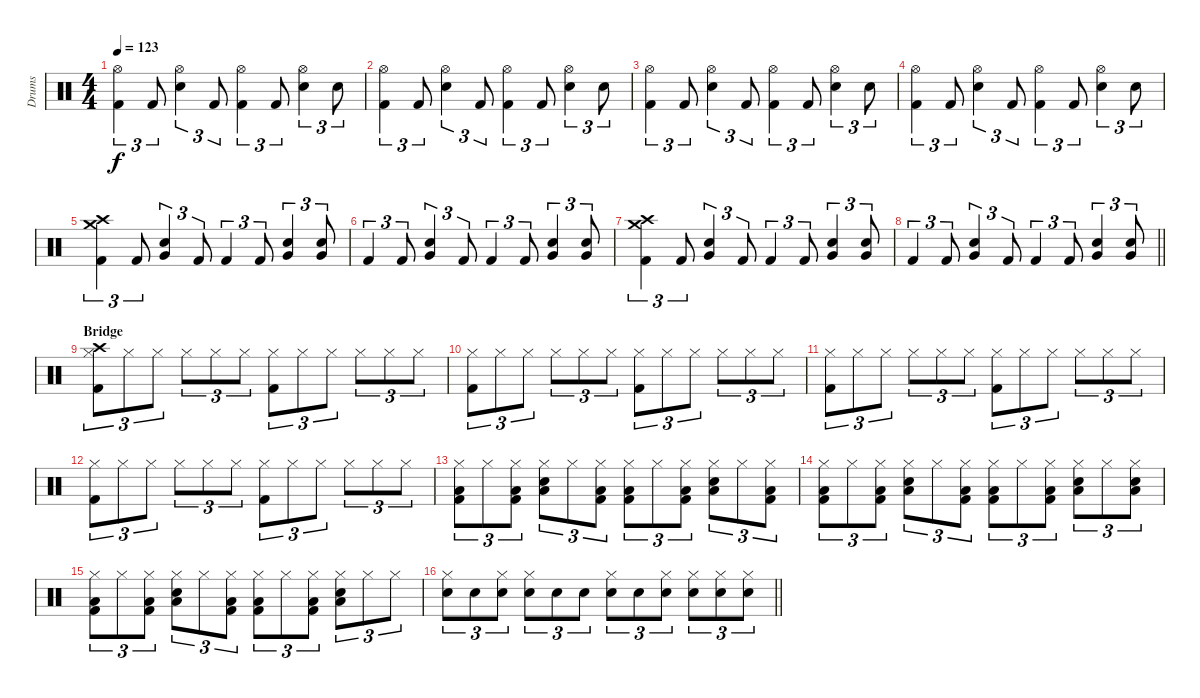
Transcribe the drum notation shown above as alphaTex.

\track ("Drums" "Drums") {instrument percussion}
\staff {score}
\articulation defaults
\ts (4 4)
\tempo 123
\clef neutral
\ks c
("Hi-Hat (open)" "Kick (hit) 2").4{tu (3 2) dy f} "Kick (hit) 2".8{tu (3 2)} ("Hi-Hat (open)" "Snare (hit) 2").4{tu (3 2)} "Kick (hit) 2".8{tu (3 2)} ("Hi-Hat (open)" "Kick (hit) 2").4{tu (3 2)} "Kick (hit) 2".8{tu (3 2)} ("Hi-Hat (open)" "Snare (hit) 2").4{tu (3 2)} "Snare (hit) 2".8{tu (3 2)} |
("Hi-Hat (open)" "Kick (hit) 2").4{tu (3 2)} "Kick (hit) 2".8{tu (3 2)} ("Hi-Hat (open)" "Snare (hit) 2").4{tu (3 2)} "Kick (hit) 2".8{tu (3 2)} ("Hi-Hat (open)" "Kick (hit) 2").4{tu (3 2)} "Kick (hit) 2".8{tu (3 2)} ("Hi-Hat (open)" "Snare (hit) 2").4{tu (3 2)} "Snare (hit) 2".8{tu (3 2)} |
("Hi-Hat (open)" "Kick (hit) 2").4{tu (3 2)} "Kick (hit) 2".8{tu (3 2)} ("Hi-Hat (open)" "Snare (hit) 2").4{tu (3 2)} "Kick (hit) 2".8{tu (3 2)} ("Hi-Hat (open)" "Kick (hit) 2").4{tu (3 2)} "Kick (hit) 2".8{tu (3 2)} ("Hi-Hat (open)" "Snare (hit) 2").4{tu (3 2)} "Snare (hit) 2".8{tu (3 2)} |
("Hi-Hat (open)" "Kick (hit) 2").4{tu (3 2)} "Kick (hit) 2".8{tu (3 2)} ("Hi-Hat (open)" "Snare (hit) 2").4{tu (3 2)} "Kick (hit) 2".8{tu (3 2)} ("Hi-Hat (open)" "Kick (hit) 2").4{tu (3 2)} "Kick (hit) 2".8{tu (3 2)} ("Hi-Hat (open)" "Snare (hit) 2").4{tu (3 2)} "Snare (hit) 2".8{tu (3 2)} |
("Crash high (hit)" "Crash medium (hit)" "Kick (hit) 2").4{tu (3 2)} "Kick (hit) 2".8{tu (3 2)} ("Snare (hit) 2" "Very Low Tom (hit)").4{tu (3 2)} "Kick (hit) 2".8{tu (3 2)} "Kick (hit) 2".4{tu (3 2)} "Kick (hit) 2".8{tu (3 2)} ("Snare (hit) 2" "Very Low Tom (hit)").4{tu (3 2)} ("Snare (hit) 2" "Very Low Tom (hit)").8{tu (3 2)} |
"Kick (hit) 2".4{tu (3 2)} "Kick (hit) 2".8{tu (3 2)} ("Snare (hit) 2" "Very Low Tom (hit)").4{tu (3 2)} "Kick (hit) 2".8{tu (3 2)} "Kick (hit) 2".4{tu (3 2)} "Kick (hit) 2".8{tu (3 2)} ("Snare (hit) 2" "Very Low Tom (hit)").4{tu (3 2)} ("Snare (hit) 2" "Very Low Tom (hit)").8{tu (3 2)} |
("Crash high (hit)" "Crash medium (hit)" "Kick (hit) 2").4{tu (3 2)} "Kick (hit) 2".8{tu (3 2)} ("Snare (hit) 2" "Very Low Tom (hit)").4{tu (3 2)} "Kick (hit) 2".8{tu (3 2)} "Kick (hit) 2".4{tu (3 2)} "Kick (hit) 2".8{tu (3 2)} ("Snare (hit) 2" "Very Low Tom (hit)").4{tu (3 2)} ("Snare (hit) 2" "Very Low Tom (hit)").8{tu (3 2)} |
\barLineRight lightlight "Kick (hit) 2".4{tu (3 2)} "Kick (hit) 2".8{tu (3 2)}
("Snare (hit) 2" "Very Low Tom (hit)").4{tu (3 2)} "Kick (hit) 2".8{tu (3 2)} "Kick (hit) 2".4{tu (3 2)} "Kick (hit) 2".8{tu (3 2)} ("Snare (hit) 2" "Very Low Tom (hit)").4{tu (3 2)} ("Snare (hit) 2" "Very Low Tom (hit)").8{tu (3 2)} |
\section ("" "Bridge")
("Hi-Hat (closed)" "Crash high (hit)" "Kick (hit) 2").8{tu (3 2)} "Hi-Hat (closed)".8{tu (3 2)} "Hi-Hat (closed)".8{tu (3 2)} "Hi-Hat (closed)".8{tu (3 2)} "Hi-Hat (closed)".8{tu (3 2)} "Hi-Hat (closed)".8{tu (3 2)} ("Hi-Hat (closed)" "Kick (hit) 2").8{tu (3 2)} "Hi-Hat (closed)".8{tu (3 2)} "Hi-Hat (closed)".8{tu (3 2)} "Hi-Hat (closed)".8{tu (3 2)} "Hi-Hat (closed)".8{tu (3 2)} "Hi-Hat (closed)".8{tu (3 2)} |
("Hi-Hat (closed)" "Kick (hit) 2").8{tu (3 2)} "Hi-Hat (closed)".8{tu (3 2)} "Hi-Hat (closed)".8{tu (3 2)} "Hi-Hat (closed)".8{tu (3 2)} "Hi-Hat (closed)".8{tu (3 2)} "Hi-Hat (closed)".8{tu (3 2)} ("Hi-Hat (closed)" "Kick (hit) 2").8{tu (3 2)} "Hi-Hat (closed)".8{tu (3 2)} "Hi-Hat (closed)".8{tu (3 2)} "Hi-Hat (closed)".8{tu (3 2)} "Hi-Hat (closed)".8{tu (3 2)} "Hi-Hat (closed)".8{tu (3 2)} |
("Hi-Hat (closed)" "Kick (hit) 2").8{tu (3 2)} "Hi-Hat (closed)".8{tu (3 2)} "Hi-Hat (closed)".8{tu (3 2)} "Hi-Hat (closed)".8{tu (3 2)} "Hi-Hat (closed)".8{tu (3 2)} "Hi-Hat (closed)".8{tu (3 2)} ("Hi-Hat (closed)" "Kick (hit) 2").8{tu (3 2)} "Hi-Hat (closed)".8{tu (3 2)} "Hi-Hat (closed)".8{tu (3 2)} "Hi-Hat (closed)".8{tu (3 2)} "Hi-Hat (closed)".8{tu (3 2)} "Hi-Hat (closed)".8{tu (3 2)} |
("Hi-Hat (closed)" "Kick (hit) 2").8{tu (3 2)} "Hi-Hat (closed)".8{tu (3 2)} "Hi-Hat (closed)".8{tu (3 2)} "Hi-Hat (closed)".8{tu (3 2)} "Hi-Hat (closed)".8{tu (3 2)} "Hi-Hat (closed)".8{tu (3 2)} ("Hi-Hat (closed)" "Kick (hit) 2").8{tu (3 2)} "Hi-Hat (closed)".8{tu (3 2)} "Hi-Hat (closed)".8{tu (3 2)} "Hi-Hat (closed)".8{tu (3 2)} "Hi-Hat (closed)".8{tu (3 2)} "Hi-Hat (closed)".8{tu (3 2)} |
("Hi-Hat (closed)" "Low Floor Tom (hit)" "Kick (hit) 2").8{tu (3 2)} "Hi-Hat (closed)".8{tu (3 2)} ("Hi-Hat (closed)" "Low Floor Tom (hit)" "Kick (hit) 2").8{tu (3 2)} ("Hi-Hat (closed)" "Snare (hit) 2" "Low Floor Tom (hit)").8{tu (3 2)} "Hi-Hat (closed)".8{tu (3 2)} ("Hi-Hat (closed)" "Low Floor Tom (hit)" "Kick (hit) 2").8{tu (3 2)} ("Hi-Hat (closed)" "Low Floor Tom (hit)" "Kick (hit) 2").8{tu (3 2)} "Hi-Hat (closed)".8{tu (3 2)} ("Hi-Hat (closed)" "Low Floor Tom (hit)" "Kick (hit) 2").8{tu (3 2)} ("Hi-Hat (closed)" "Snare (hit) 2" "Low Floor Tom (hit)").8{tu (3 2)} "Hi-Hat (closed)".8{tu (3 2)} ("Hi-Hat (closed)" "Low Floor Tom (hit)" "Kick (hit) 2").8{tu (3 2)} |
("Hi-Hat (closed)" "Low Floor Tom (hit)" "Kick (hit) 2").8{tu (3 2)} "Hi-Hat (closed)".8{tu (3 2)} ("Hi-Hat (closed)" "Low Floor Tom (hit)" "Kick (hit) 2").8{tu (3 2)} ("Hi-Hat (closed)" "Snare (hit) 2" "Low Floor Tom (hit)").8{tu (3 2)} "Hi-Hat (closed)".8{tu (3 2)} ("Hi-Hat (closed)" "Low Floor Tom (hit)" "Kick (hit) 2").8{tu (3 2)} ("Hi-Hat (closed)" "Low Floor Tom (hit)" "Kick (hit) 2").8{tu (3 2)} "Hi-Hat (closed)".8{tu (3 2)} ("Hi-Hat (closed)" "Low Floor Tom (hit)" "Kick (hit) 2").8{tu (3 2)} ("Hi-Hat (closed)" "Snare (hit) 2" "Low Floor Tom (hit)").8{tu (3 2)} "Hi-Hat (closed)".8{tu (3 2)} ("Hi-Hat (closed)" "Hand Clap (hit)" "Low Floor Tom (hit)").8{tu (3 2)} |
("Hi-Hat (closed)" "Low Floor Tom (hit)" "Kick (hit) 2").8{tu (3 2)} "Hi-Hat (closed)".8{tu (3 2)} ("Hi-Hat (closed)" "Low Floor Tom (hit)" "Kick (hit) 2").8{tu (3 2)} ("Hi-Hat (closed)" "Snare (hit) 2" "Low Floor Tom (hit)").8{tu (3 2)} "Hi-Hat (closed)".8{tu (3 2)} ("Hi-Hat (closed)" "Low Floor Tom (hit)" "Kick (hit) 2").8{tu (3 2)} ("Hi-Hat (closed)" "Low Floor Tom (hit)" "Kick (hit) 2").8{tu (3 2)} "Hi-Hat (closed)".8{tu (3 2)} ("Hi-Hat (closed)" "Low Floor Tom (hit)" "Kick (hit) 2").8{tu (3 2)} ("Hi-Hat (closed)" "Snare (hit) 2" "Low Floor Tom (hit)").8{tu (3 2)} "Hi-Hat (closed)".8{tu (3 2)} "Hi-Hat (closed)".8{tu (3 2)} |
\barLineRight lightlight
("Hi-Hat (closed)" "Snare (hit) 2").8{tu (3 2)} "Snare (hit) 2".8{tu (3 2)} ("Hi-Hat (closed)" "Snare (hit) 2").8{tu (3 2)} ("Hi-Hat (closed)" "Snare (hit) 2").8{tu (3 2)} "Snare (hit) 2".8{tu (3 2)} "Snare (hit) 2".8{tu (3 2)} ("Hi-Hat (closed)" "Snare (hit) 2").8{tu (3 2)} "Snare (hit) 2".8{tu (3 2)} ("Hi-Hat (closed)" "Snare (hit) 2").8{tu (3 2)} ("Hi-Hat (closed)" "Snare (hit) 2").8{tu (3 2)} ("Hi-Hat (closed)" "Snare (hit) 2").8{tu (3 2)} ("Hi-Hat (closed)" "Snare (hit) 2").8{tu (3 2)}
